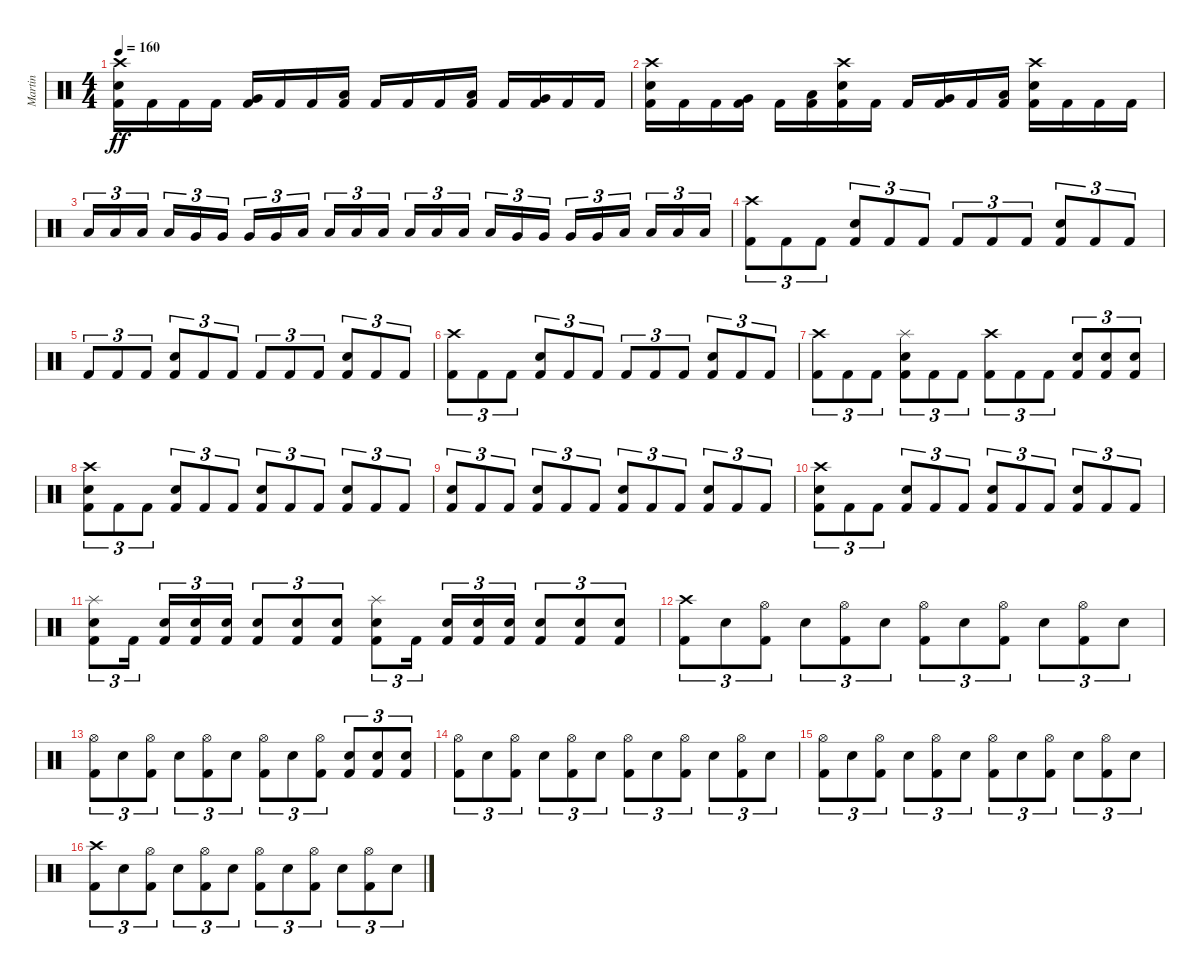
\track ("Martin" "Martin") {instrument percussion}
\staff {score}
\articulation defaults
\ts (4 4)
\tempo 160
\clef neutral
\ks c
("Crash high (hit)" "Electric Snare (hit)" "Kick (hit) 2").16{dy ff} "Kick (hit) 2".16 "Kick (hit) 2".16 "Kick (hit) 2".16 ("Very Low Tom (hit)" "Kick (hit) 2").16 "Kick (hit) 2".16 "Kick (hit) 2".16 ("Low Tom (hit)" "Kick (hit) 2").16 "Kick (hit) 2".16 "Kick (hit) 2".16 "Kick (hit) 2".16 ("Low Floor Tom (hit)" "Kick (hit) 2").16 "Kick (hit) 2".16 ("Very Low Tom (hit)" "Kick (hit) 2").16 "Kick (hit) 2".16 "Kick (hit) 2".16 |
("Crash high (hit)" "Electric Snare (hit)" "Kick (hit) 2").16 "Kick (hit) 2".16 "Kick (hit) 2".16 ("Very Low Tom (hit)" "Kick (hit) 2").16 "Kick (hit) 2".16 ("Low Floor Tom (hit)" "Kick (hit) 2").16 ("Crash high (hit)" "Electric Snare (hit)" "Kick (hit) 2").16 "Kick (hit) 2".16 "Kick (hit) 2".16 ("Very Low Tom (hit)" "Kick (hit) 2").16 "Kick (hit) 2".16 ("Low Floor Tom (hit)" "Kick (hit) 2").16 ("Crash high (hit)" "Electric Snare (hit)" "Kick (hit) 2").16 "Kick (hit) 2".16 "Kick (hit) 2".16 "Kick (hit) 2".16 |
"Low Tom (hit)".16{tu (3 2)} "Low Tom (hit)".16{tu (3 2)} "Low Tom (hit)".16{tu (3 2) beam splitsecondary} "Low Tom (hit)".16{tu (3 2)} "Very Low Tom (hit)".16{tu (3 2)} "Very Low Tom (hit)".16{tu (3 2)} "Very Low Tom (hit)".16{tu (3 2)} "Very Low Tom (hit)".16{tu (3 2)} "Low Floor Tom (hit)".16{tu (3 2) beam splitsecondary} "Low Floor Tom (hit)".16{tu (3 2)} "Low Floor Tom (hit)".16{tu (3 2)} "Low Floor Tom (hit)".16{tu (3 2)} "Low Tom (hit)".16{tu (3 2)} "Low Tom (hit)".16{tu (3 2)} "Low Tom (hit)".16{tu (3 2) beam splitsecondary} "Low Tom (hit)".16{tu (3 2)} "Very Low Tom (hit)".16{tu (3 2)} "Very Low Tom (hit)".16{tu (3 2)} "Very Low Tom (hit)".16{tu (3 2)} "Very Low Tom (hit)".16{tu (3 2)} "Low Floor Tom (hit)".16{tu (3 2) beam splitsecondary} "Low Floor Tom (hit)".16{tu (3 2)} "Low Floor Tom (hit)".16{tu (3 2)} "Low Floor Tom (hit)".16{tu (3 2)} |
("Crash high (hit)" "Kick (hit) 2").8{tu (3 2)} "Kick (hit) 2".8{tu (3 2)} "Kick (hit) 2".8{tu (3 2)} ("Electric Snare (hit)" "Kick (hit) 2").8{tu (3 2)} "Kick (hit) 2".8{tu (3 2)} "Kick (hit) 2".8{tu (3 2)} "Kick (hit) 2".8{tu (3 2)} "Kick (hit) 2".8{tu (3 2)} "Kick (hit) 2".8{tu (3 2)} ("Electric Snare (hit)" "Kick (hit) 2").8{tu (3 2)} "Kick (hit) 2".8{tu (3 2)} "Kick (hit) 2".8{tu (3 2)} |
"Kick (hit) 2".8{tu (3 2)} "Kick (hit) 2".8{tu (3 2)} "Kick (hit) 2".8{tu (3 2)} ("Electric Snare (hit)" "Kick (hit) 2").8{tu (3 2)} "Kick (hit) 2".8{tu (3 2)} "Kick (hit) 2".8{tu (3 2)} "Kick (hit) 2".8{tu (3 2)} "Kick (hit) 2".8{tu (3 2)} "Kick (hit) 2".8{tu (3 2)} ("Electric Snare (hit)" "Kick (hit) 2").8{tu (3 2)} "Kick (hit) 2".8{tu (3 2)} "Kick (hit) 2".8{tu (3 2)} |
("Crash high (hit)" "Kick (hit) 2").8{tu (3 2)} "Kick (hit) 2".8{tu (3 2)} "Kick (hit) 2".8{tu (3 2)} ("Electric Snare (hit)" "Kick (hit) 2").8{tu (3 2)} "Kick (hit) 2".8{tu (3 2)} "Kick (hit) 2".8{tu (3 2)} "Kick (hit) 2".8{tu (3 2)} "Kick (hit) 2".8{tu (3 2)} "Kick (hit) 2".8{tu (3 2)} ("Electric Snare (hit)" "Kick (hit) 2").8{tu (3 2)} "Kick (hit) 2".8{tu (3 2)} "Kick (hit) 2".8{tu (3 2)} |
("Crash high (hit)" "Kick (hit) 2").8{tu (3 2)} "Kick (hit) 2".8{tu (3 2)} "Kick (hit) 2".8{tu (3 2)} ("Splash (hit)" "Electric Snare (hit)" "Kick (hit) 2").8{tu (3 2)} "Kick (hit) 2".8{tu (3 2)} "Kick (hit) 2".8{tu (3 2)} ("Crash high (hit)" "Kick (hit) 2").8{tu (3 2)} "Kick (hit) 2".8{tu (3 2)} "Kick (hit) 2".8{tu (3 2)} ("Electric Snare (hit)" "Kick (hit) 2").8{tu (3 2)} ("Electric Snare (hit)" "Kick (hit) 2").8{tu (3 2)} ("Electric Snare (hit)" "Kick (hit) 2").8{tu (3 2)} |
("Crash high (hit)" "Electric Snare (hit)" "Kick (hit) 2").8{tu (3 2)} "Kick (hit) 2".8{tu (3 2)} "Kick (hit) 2".8{tu (3 2)} ("Electric Snare (hit)" "Kick (hit) 2").8{tu (3 2)} "Kick (hit) 2".8{tu (3 2)} "Kick (hit) 2".8{tu (3 2)} ("Electric Snare (hit)" "Kick (hit) 2").8{tu (3 2)} "Kick (hit) 2".8{tu (3 2)} "Kick (hit) 2".8{tu (3 2)} ("Electric Snare (hit)" "Kick (hit) 2").8{tu (3 2)} "Kick (hit) 2".8{tu (3 2)} "Kick (hit) 2".8{tu (3 2)} |
("Electric Snare (hit)" "Kick (hit) 2").8{tu (3 2)} "Kick (hit) 2".8{tu (3 2)} "Kick (hit) 2".8{tu (3 2)} ("Electric Snare (hit)" "Kick (hit) 2").8{tu (3 2)} "Kick (hit) 2".8{tu (3 2)} "Kick (hit) 2".8{tu (3 2)} ("Electric Snare (hit)" "Kick (hit) 2").8{tu (3 2)} "Kick (hit) 2".8{tu (3 2)} "Kick (hit) 2".8{tu (3 2)} ("Electric Snare (hit)" "Kick (hit) 2").8{tu (3 2)} "Kick (hit) 2".8{tu (3 2)} "Kick (hit) 2".8{tu (3 2)} |
("Crash high (hit)" "Electric Snare (hit)" "Kick (hit) 2").8{tu (3 2)} "Kick (hit) 2".8{tu (3 2)} "Kick (hit) 2".8{tu (3 2)} ("Electric Snare (hit)" "Kick (hit) 2").8{tu (3 2)} "Kick (hit) 2".8{tu (3 2)} "Kick (hit) 2".8{tu (3 2)} ("Electric Snare (hit)" "Kick (hit) 2").8{tu (3 2)} "Kick (hit) 2".8{tu (3 2)} "Kick (hit) 2".8{tu (3 2)} ("Electric Snare (hit)" "Kick (hit) 2").8{tu (3 2)} "Kick (hit) 2".8{tu (3 2)} "Kick (hit) 2".8{tu (3 2)} |
("Splash (hit)" "Electric Snare (hit)" "Kick (hit) 2").8{tu (3 2)} "Kick (hit) 2".16{tu (3 2) beam splitsecondary} ("Electric Snare (hit)" "Kick (hit) 2").16{tu (3 2)} ("Electric Snare (hit)" "Kick (hit) 2").16{tu (3 2)} ("Electric Snare (hit)" "Kick (hit) 2").16{tu (3 2)} ("Electric Snare (hit)" "Kick (hit) 2").8{tu (3 2)} ("Electric Snare (hit)" "Kick (hit) 2").8{tu (3 2)} ("Electric Snare (hit)" "Kick (hit) 2").8{tu (3 2)} ("Splash (hit)" "Electric Snare (hit)" "Kick (hit) 2").8{tu (3 2)} "Kick (hit) 2".16{tu (3 2) beam splitsecondary} ("Electric Snare (hit)" "Kick (hit) 2").16{tu (3 2)} ("Electric Snare (hit)" "Kick (hit) 2").16{tu (3 2)} ("Electric Snare (hit)" "Kick (hit) 2").16{tu (3 2)} ("Electric Snare (hit)" "Kick (hit) 2").8{tu (3 2)} ("Electric Snare (hit)" "Kick (hit) 2").8{tu (3 2)} ("Electric Snare (hit)" "Kick (hit) 2").8{tu (3 2)} |
("Crash high (hit)" "Kick (hit) 2").8{tu (3 2)} "Electric Snare (hit)".8{tu (3 2)} ("Hi-Hat (open)" "Kick (hit) 2").8{tu (3 2)} "Electric Snare (hit)".8{tu (3 2)} ("Hi-Hat (open)" "Kick (hit) 2").8{tu (3 2)} "Electric Snare (hit)".8{tu (3 2)} ("Hi-Hat (open)" "Kick (hit) 2").8{tu (3 2)} "Electric Snare (hit)".8{tu (3 2)} ("Hi-Hat (open)" "Kick (hit) 2").8{tu (3 2)} "Electric Snare (hit)".8{tu (3 2)} ("Hi-Hat (open)" "Kick (hit) 2").8{tu (3 2)} "Electric Snare (hit)".8{tu (3 2)} |
("Hi-Hat (open)" "Kick (hit) 2").8{tu (3 2)} "Electric Snare (hit)".8{tu (3 2)} ("Hi-Hat (open)" "Kick (hit) 2").8{tu (3 2)} "Electric Snare (hit)".8{tu (3 2)} ("Hi-Hat (open)" "Kick (hit) 2").8{tu (3 2)} "Electric Snare (hit)".8{tu (3 2)} ("Hi-Hat (open)" "Kick (hit) 2").8{tu (3 2)} "Electric Snare (hit)".8{tu (3 2)} ("Hi-Hat (open)" "Kick (hit) 2").8{tu (3 2)} ("Electric Snare (hit)" "Kick (hit) 2").8{tu (3 2)} ("Electric Snare (hit)" "Kick (hit) 2").8{tu (3 2)} ("Electric Snare (hit)" "Kick (hit) 2").8{tu (3 2)} |
("Hi-Hat (open)" "Kick (hit) 2").8{tu (3 2)} "Electric Snare (hit)".8{tu (3 2)} ("Hi-Hat (open)" "Kick (hit) 2").8{tu (3 2)} "Electric Snare (hit)".8{tu (3 2)} ("Hi-Hat (open)" "Kick (hit) 2").8{tu (3 2)} "Electric Snare (hit)".8{tu (3 2)} ("Hi-Hat (open)" "Kick (hit) 2").8{tu (3 2)} "Electric Snare (hit)".8{tu (3 2)} ("Hi-Hat (open)" "Kick (hit) 2").8{tu (3 2)} "Electric Snare (hit)".8{tu (3 2)} ("Hi-Hat (open)" "Kick (hit) 2").8{tu (3 2)} "Electric Snare (hit)".8{tu (3 2)} |
("Hi-Hat (open)" "Kick (hit) 2").8{tu (3 2)} "Electric Snare (hit)".8{tu (3 2)} ("Hi-Hat (open)" "Kick (hit) 2").8{tu (3 2)} "Electric Snare (hit)".8{tu (3 2)} ("Hi-Hat (open)" "Kick (hit) 2").8{tu (3 2)} "Electric Snare (hit)".8{tu (3 2)} ("Hi-Hat (open)" "Kick (hit) 2").8{tu (3 2)} "Electric Snare (hit)".8{tu (3 2)} ("Hi-Hat (open)" "Kick (hit) 2").8{tu (3 2)} "Electric Snare (hit)".8{tu (3 2)} ("Hi-Hat (open)" "Kick (hit) 2").8{tu (3 2)} "Electric Snare (hit)".8{tu (3 2)} |
("Crash high (hit)" "Kick (hit) 2").8{tu (3 2)} "Electric Snare (hit)".8{tu (3 2)} ("Hi-Hat (open)" "Kick (hit) 2").8{tu (3 2)} "Electric Snare (hit)".8{tu (3 2)} ("Hi-Hat (open)" "Kick (hit) 2").8{tu (3 2)} "Electric Snare (hit)".8{tu (3 2)} ("Hi-Hat (open)" "Kick (hit) 2").8{tu (3 2)} "Electric Snare (hit)".8{tu (3 2)} ("Hi-Hat (open)" "Kick (hit) 2").8{tu (3 2)} "Electric Snare (hit)".8{tu (3 2)} ("Hi-Hat (open)" "Kick (hit) 2").8{tu (3 2)} "Electric Snare (hit)".8{tu (3 2)}
